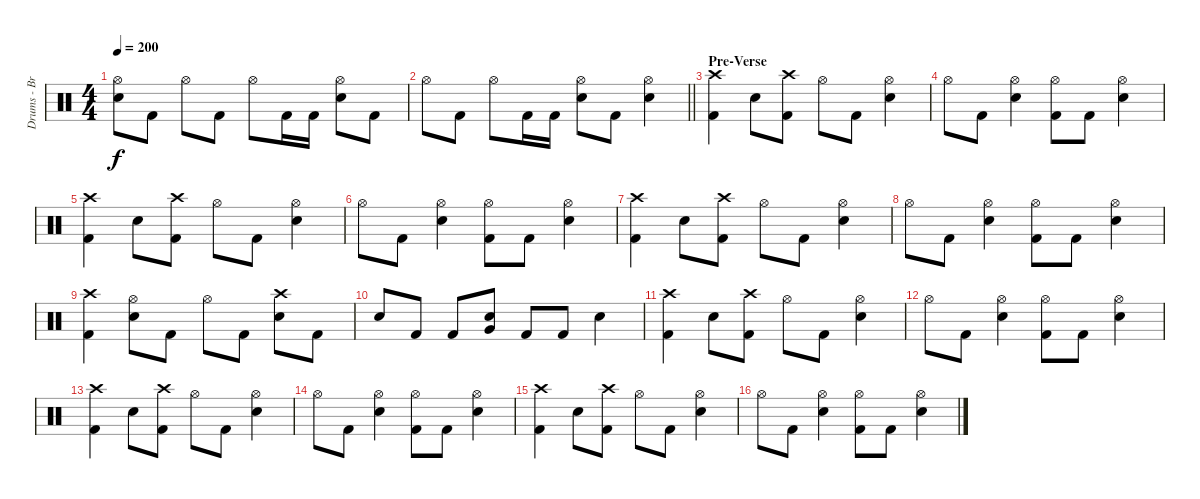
\track ("Drums - Brandon Barnes" "Drums - Br") {instrument percussion}
\staff {score}
\articulation defaults
\ts (4 4)
\tempo 200
\clef neutral
\ks c
("Electric Snare (hit)" "Hi-Hat (open)").8{dy f} "Kick (hit) 2".8 "Hi-Hat (open)".8 "Kick (hit) 2".8 "Hi-Hat (open)".8 "Kick (hit) 2".16 "Kick (hit) 2".16 ("Electric Snare (hit)" "Hi-Hat (open)").8 "Kick (hit) 2".8 |
\barLineRight lightlight "Hi-Hat (open)".8 "Kick (hit) 2".8 "Hi-Hat (open)".8 "Kick (hit) 2".16 "Kick (hit) 2".16
("Electric Snare (hit)" "Hi-Hat (open)").8 "Kick (hit) 2".8 ("Snare (hit) 2" "Hi-Hat (open)").4 |
\section ("" "Pre-Verse")
("Crash high (hit)" "Kick (hit) 2").4 "Electric Snare (hit)".8 ("Crash high (hit)" "Kick (hit) 2").8 "Hi-Hat (open)".8 "Kick (hit) 2".8 ("Hi-Hat (open)" "Electric Snare (hit)").4 |
"Hi-Hat (open)".8 "Kick (hit) 2".8 ("Hi-Hat (open)" "Electric Snare (hit)").4 ("Hi-Hat (open)" "Kick (hit) 2").8 "Kick (hit) 2".8 ("Hi-Hat (open)" "Electric Snare (hit)").4 |
("Crash high (hit)" "Kick (hit) 2").4 "Electric Snare (hit)".8 ("Crash high (hit)" "Kick (hit) 2").8 "Hi-Hat (open)".8 "Kick (hit) 2".8 ("Hi-Hat (open)" "Electric Snare (hit)").4 |
"Hi-Hat (open)".8 "Kick (hit) 2".8 ("Hi-Hat (open)" "Electric Snare (hit)").4 ("Hi-Hat (open)" "Kick (hit) 2").8 "Kick (hit) 2".8 ("Hi-Hat (open)" "Electric Snare (hit)").4 |
("Crash high (hit)" "Kick (hit) 2").4 "Electric Snare (hit)".8 ("Crash high (hit)" "Kick (hit) 2").8 "Hi-Hat (open)".8 "Kick (hit) 2".8 ("Hi-Hat (open)" "Electric Snare (hit)").4 |
"Hi-Hat (open)".8 "Kick (hit) 2".8 ("Hi-Hat (open)" "Electric Snare (hit)").4 ("Hi-Hat (open)" "Kick (hit) 2").8 "Kick (hit) 2".8 ("Hi-Hat (open)" "Electric Snare (hit)").4 |
("Crash high (hit)" "Kick (hit) 2").4 ("Hi-Hat (open)" "Electric Snare (hit)").8 "Kick (hit) 2".8 "Hi-Hat (open)".8 "Kick (hit) 2".8 ("Crash high (hit)" "Electric Snare (hit)").8 "Kick (hit) 2".8 |
"Electric Snare (hit)".8 "Kick (hit) 2".8 "Kick (hit) 2".8 ("Electric Snare (hit)" "Very Low Tom (hit)").8 "Kick (hit) 2".8 "Kick (hit) 2".8 "Electric Snare (hit)".4 |
("Crash high (hit)" "Kick (hit) 2").4 "Electric Snare (hit)".8 ("Crash high (hit)" "Kick (hit) 2").8 "Hi-Hat (open)".8 "Kick (hit) 2".8 ("Hi-Hat (open)" "Electric Snare (hit)").4 |
"Hi-Hat (open)".8 "Kick (hit) 2".8 ("Hi-Hat (open)" "Electric Snare (hit)").4 ("Hi-Hat (open)" "Kick (hit) 2").8 "Kick (hit) 2".8 ("Hi-Hat (open)" "Electric Snare (hit)").4 |
("Crash high (hit)" "Kick (hit) 2").4 "Electric Snare (hit)".8 ("Crash high (hit)" "Kick (hit) 2").8 "Hi-Hat (open)".8 "Kick (hit) 2".8 ("Hi-Hat (open)" "Electric Snare (hit)").4 |
"Hi-Hat (open)".8 "Kick (hit) 2".8 ("Hi-Hat (open)" "Electric Snare (hit)").4 ("Hi-Hat (open)" "Kick (hit) 2").8 "Kick (hit) 2".8 ("Hi-Hat (open)" "Electric Snare (hit)").4 |
("Crash high (hit)" "Kick (hit) 2").4 "Electric Snare (hit)".8 ("Crash high (hit)" "Kick (hit) 2").8 "Hi-Hat (open)".8 "Kick (hit) 2".8 ("Hi-Hat (open)" "Electric Snare (hit)").4 |
"Hi-Hat (open)".8 "Kick (hit) 2".8 ("Hi-Hat (open)" "Electric Snare (hit)").4 ("Hi-Hat (open)" "Kick (hit) 2").8 "Kick (hit) 2".8 ("Hi-Hat (open)" "Electric Snare (hit)").4
